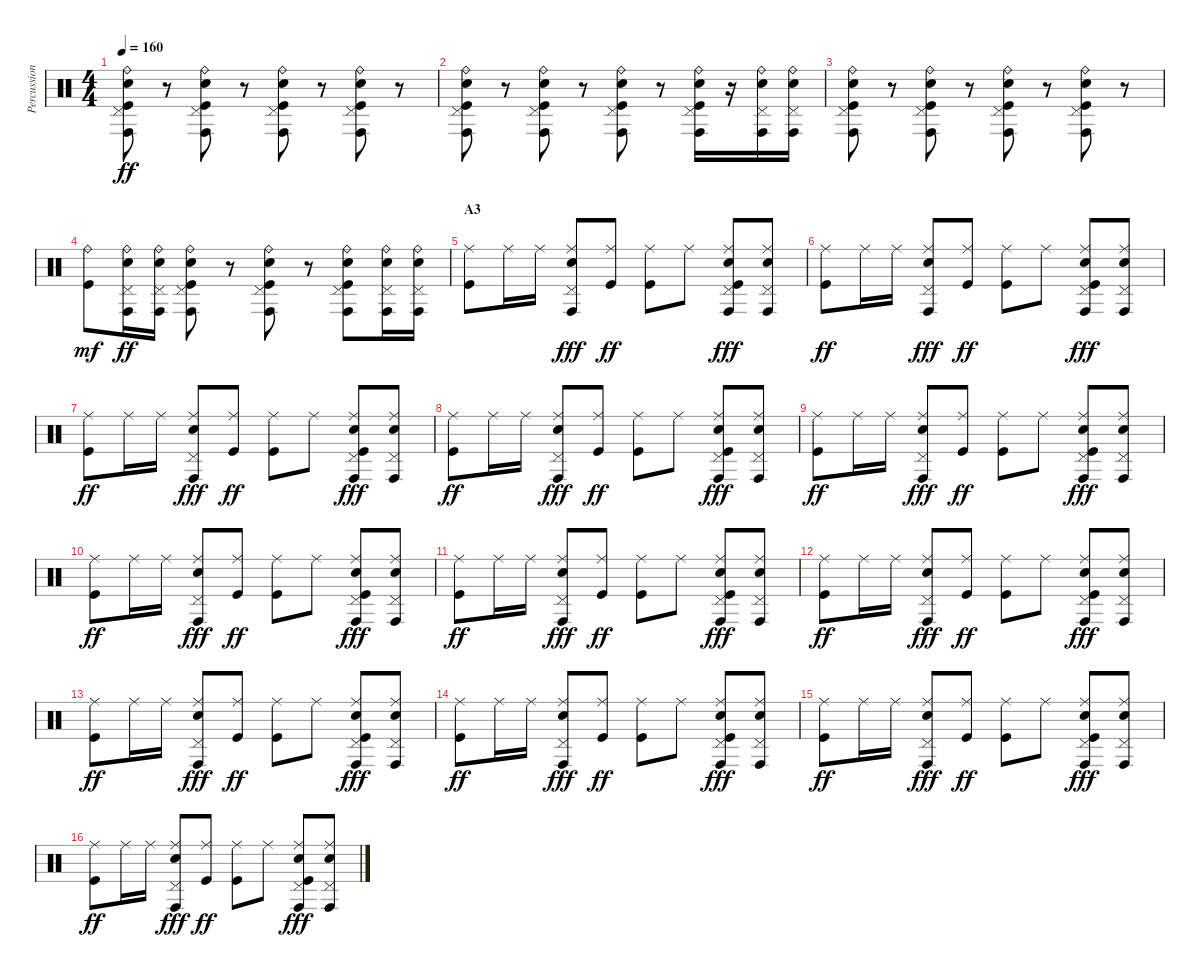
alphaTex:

\track ("Percussion" "Percussion") {instrument percussion}
\staff {score}
\articulation defaults
\ts (4 4)
\tempo 160
\clef neutral
\ks c
("Ride (bell)" "Pedal Hi-Hat (hit)" "Conga high (hit)" "Electric Snare (hit)" "Kick (hit)").8{dy ff} r.8 ("Ride (bell)" "Pedal Hi-Hat (hit)" "Conga high (hit)" "Electric Snare (hit)" "Kick (hit)").8 r.8 ("Ride (bell)" "Pedal Hi-Hat (hit)" "Conga high (hit)" "Electric Snare (hit)" "Kick (hit)").8 r.8 ("Ride (bell)" "Pedal Hi-Hat (hit)" "Conga high (hit)" "Electric Snare (hit)" "Kick (hit)").8 r.8 |
("Ride (bell)" "Pedal Hi-Hat (hit)" "Conga high (hit)" "Electric Snare (hit)" "Kick (hit)").8 r.8 ("Ride (bell)" "Pedal Hi-Hat (hit)" "Conga high (hit)" "Electric Snare (hit)" "Kick (hit)").8 r.8 ("Ride (bell)" "Pedal Hi-Hat (hit)" "Conga high (hit)" "Electric Snare (hit)" "Kick (hit)").8 r.8 ("Ride (bell)" "Pedal Hi-Hat (hit)" "Conga high (hit)" "Electric Snare (hit)" "Kick (hit)").16 r.16 ("Ride (bell)" "Pedal Hi-Hat (hit)" "Conga high (hit)" "Electric Snare (hit)").16 ("Ride (bell)" "Pedal Hi-Hat (hit)" "Conga high (hit)" "Electric Snare (hit)").16 |
("Ride (bell)" "Pedal Hi-Hat (hit)" "Conga high (hit)" "Electric Snare (hit)" "Kick (hit)").8 r.8 ("Ride (bell)" "Pedal Hi-Hat (hit)" "Conga high (hit)" "Electric Snare (hit)" "Kick (hit)").8 r.8 ("Ride (bell)" "Pedal Hi-Hat (hit)" "Conga high (hit)" "Electric Snare (hit)" "Kick (hit)").8 r.8 ("Ride (bell)" "Pedal Hi-Hat (hit)" "Conga high (hit)" "Electric Snare (hit)" "Kick (hit)").8 r.8 |
("Ride (bell)" "Kick (hit)").8{dy mf} ("Ride (bell)" "Pedal Hi-Hat (hit)" "Conga high (hit)" "Electric Snare (hit)").16{dy ff} ("Ride (bell)" "Pedal Hi-Hat (hit)" "Conga high (hit)" "Electric Snare (hit)").16 ("Ride (bell)" "Pedal Hi-Hat (hit)" "Conga high (hit)" "Electric Snare (hit)" "Kick (hit)").8 r.8 ("Ride (bell)" "Pedal Hi-Hat (hit)" "Conga high (hit)" "Electric Snare (hit)" "Kick (hit)").8 r.8 ("Ride (bell)" "Pedal Hi-Hat (hit)" "Conga high (hit)" "Electric Snare (hit)" "Kick (hit)").8 ("Ride (bell)" "Pedal Hi-Hat (hit)" "Conga high (hit)" "Electric Snare (hit)").16 ("Ride (bell)" "Pedal Hi-Hat (hit)" "Conga high (hit)" "Electric Snare (hit)").16 |
\section ("" "A3")
("Ride (middle)" "Kick (hit)").8 "Ride (middle)".16 "Ride (middle)".16 ("Ride (middle)" "Pedal Hi-Hat (hit)" "Conga high (hit)" "Electric Snare (hit)").8{dy fff} ("Ride (middle)" "Kick (hit)").8{dy ff} ("Ride (middle)" "Kick (hit)").8 "Ride (middle)".8 ("Ride (middle)" "Pedal Hi-Hat (hit)" "Conga high (hit)" "Electric Snare (hit)" "Kick (hit)").8{dy fff} ("Ride (middle)" "Pedal Hi-Hat (hit)" "Conga high (hit)" "Electric Snare (hit)").8 |
("Ride (middle)" "Kick (hit)").8{dy ff} "Ride (middle)".16 "Ride (middle)".16 ("Ride (middle)" "Pedal Hi-Hat (hit)" "Conga high (hit)" "Electric Snare (hit)").8{dy fff} ("Ride (middle)" "Kick (hit)").8{dy ff} ("Ride (middle)" "Kick (hit)").8 "Ride (middle)".8 ("Ride (middle)" "Pedal Hi-Hat (hit)" "Conga high (hit)" "Electric Snare (hit)" "Kick (hit)").8{dy fff} ("Ride (middle)" "Pedal Hi-Hat (hit)" "Conga high (hit)" "Electric Snare (hit)").8 |
("Ride (middle)" "Kick (hit)").8{dy ff} "Ride (middle)".16 "Ride (middle)".16 ("Ride (middle)" "Pedal Hi-Hat (hit)" "Conga high (hit)" "Electric Snare (hit)").8{dy fff} ("Ride (middle)" "Kick (hit)").8{dy ff} ("Ride (middle)" "Kick (hit)").8 "Ride (middle)".8 ("Ride (middle)" "Pedal Hi-Hat (hit)" "Conga high (hit)" "Electric Snare (hit)" "Kick (hit)").8{dy fff} ("Ride (middle)" "Pedal Hi-Hat (hit)" "Conga high (hit)" "Electric Snare (hit)").8 |
("Ride (middle)" "Kick (hit)").8{dy ff} "Ride (middle)".16 "Ride (middle)".16 ("Ride (middle)" "Pedal Hi-Hat (hit)" "Conga high (hit)" "Electric Snare (hit)").8{dy fff} ("Ride (middle)" "Kick (hit)").8{dy ff} ("Ride (middle)" "Kick (hit)").8 "Ride (middle)".8 ("Ride (middle)" "Pedal Hi-Hat (hit)" "Conga high (hit)" "Electric Snare (hit)" "Kick (hit)").8{dy fff} ("Ride (middle)" "Pedal Hi-Hat (hit)" "Conga high (hit)" "Electric Snare (hit)").8 |
("Ride (middle)" "Kick (hit)").8{dy ff} "Ride (middle)".16 "Ride (middle)".16 ("Ride (middle)" "Pedal Hi-Hat (hit)" "Conga high (hit)" "Electric Snare (hit)").8{dy fff} ("Ride (middle)" "Kick (hit)").8{dy ff} ("Ride (middle)" "Kick (hit)").8 "Ride (middle)".8 ("Ride (middle)" "Pedal Hi-Hat (hit)" "Conga high (hit)" "Electric Snare (hit)" "Kick (hit)").8{dy fff} ("Ride (middle)" "Pedal Hi-Hat (hit)" "Conga high (hit)" "Electric Snare (hit)").8 |
("Ride (middle)" "Kick (hit)").8{dy ff} "Ride (middle)".16 "Ride (middle)".16 ("Ride (middle)" "Pedal Hi-Hat (hit)" "Conga high (hit)" "Electric Snare (hit)").8{dy fff} ("Ride (middle)" "Kick (hit)").8{dy ff} ("Ride (middle)" "Kick (hit)").8 "Ride (middle)".8 ("Ride (middle)" "Pedal Hi-Hat (hit)" "Conga high (hit)" "Electric Snare (hit)" "Kick (hit)").8{dy fff} ("Ride (middle)" "Pedal Hi-Hat (hit)" "Conga high (hit)" "Electric Snare (hit)").8 |
("Ride (middle)" "Kick (hit)").8{dy ff} "Ride (middle)".16 "Ride (middle)".16 ("Ride (middle)" "Pedal Hi-Hat (hit)" "Conga high (hit)" "Electric Snare (hit)").8{dy fff} ("Ride (middle)" "Kick (hit)").8{dy ff} ("Ride (middle)" "Kick (hit)").8 "Ride (middle)".8 ("Ride (middle)" "Pedal Hi-Hat (hit)" "Conga high (hit)" "Electric Snare (hit)" "Kick (hit)").8{dy fff} ("Ride (middle)" "Pedal Hi-Hat (hit)" "Conga high (hit)" "Electric Snare (hit)").8 |
("Ride (middle)" "Kick (hit)").8{dy ff} "Ride (middle)".16 "Ride (middle)".16 ("Ride (middle)" "Pedal Hi-Hat (hit)" "Conga high (hit)" "Electric Snare (hit)").8{dy fff} ("Ride (middle)" "Kick (hit)").8{dy ff} ("Ride (middle)" "Kick (hit)").8 "Ride (middle)".8 ("Ride (middle)" "Pedal Hi-Hat (hit)" "Conga high (hit)" "Electric Snare (hit)" "Kick (hit)").8{dy fff} ("Ride (middle)" "Pedal Hi-Hat (hit)" "Conga high (hit)" "Electric Snare (hit)").8 |
("Ride (middle)" "Kick (hit)").8{dy ff} "Ride (middle)".16 "Ride (middle)".16 ("Ride (middle)" "Pedal Hi-Hat (hit)" "Conga high (hit)" "Electric Snare (hit)").8{dy fff} ("Ride (middle)" "Kick (hit)").8{dy ff} ("Ride (middle)" "Kick (hit)").8 "Ride (middle)".8 ("Ride (middle)" "Pedal Hi-Hat (hit)" "Conga high (hit)" "Electric Snare (hit)" "Kick (hit)").8{dy fff} ("Ride (middle)" "Pedal Hi-Hat (hit)" "Conga high (hit)" "Electric Snare (hit)").8 |
("Ride (middle)" "Kick (hit)").8{dy ff} "Ride (middle)".16 "Ride (middle)".16 ("Ride (middle)" "Pedal Hi-Hat (hit)" "Conga high (hit)" "Electric Snare (hit)").8{dy fff} ("Ride (middle)" "Kick (hit)").8{dy ff} ("Ride (middle)" "Kick (hit)").8 "Ride (middle)".8 ("Ride (middle)" "Pedal Hi-Hat (hit)" "Conga high (hit)" "Electric Snare (hit)" "Kick (hit)").8{dy fff} ("Ride (middle)" "Pedal Hi-Hat (hit)" "Conga high (hit)" "Electric Snare (hit)").8 |
("Ride (middle)" "Kick (hit)").8{dy ff} "Ride (middle)".16 "Ride (middle)".16 ("Ride (middle)" "Pedal Hi-Hat (hit)" "Conga high (hit)" "Electric Snare (hit)").8{dy fff} ("Ride (middle)" "Kick (hit)").8{dy ff} ("Ride (middle)" "Kick (hit)").8 "Ride (middle)".8 ("Ride (middle)" "Pedal Hi-Hat (hit)" "Conga high (hit)" "Electric Snare (hit)" "Kick (hit)").8{dy fff} ("Ride (middle)" "Pedal Hi-Hat (hit)" "Conga high (hit)" "Electric Snare (hit)").8 |
("Ride (middle)" "Kick (hit)").8{dy ff} "Ride (middle)".16 "Ride (middle)".16 ("Ride (middle)" "Pedal Hi-Hat (hit)" "Conga high (hit)" "Electric Snare (hit)").8{dy fff} ("Ride (middle)" "Kick (hit)").8{dy ff} ("Ride (middle)" "Kick (hit)").8 "Ride (middle)".8 ("Ride (middle)" "Pedal Hi-Hat (hit)" "Conga high (hit)" "Electric Snare (hit)" "Kick (hit)").8{dy fff} ("Ride (middle)" "Pedal Hi-Hat (hit)" "Conga high (hit)" "Electric Snare (hit)").8
